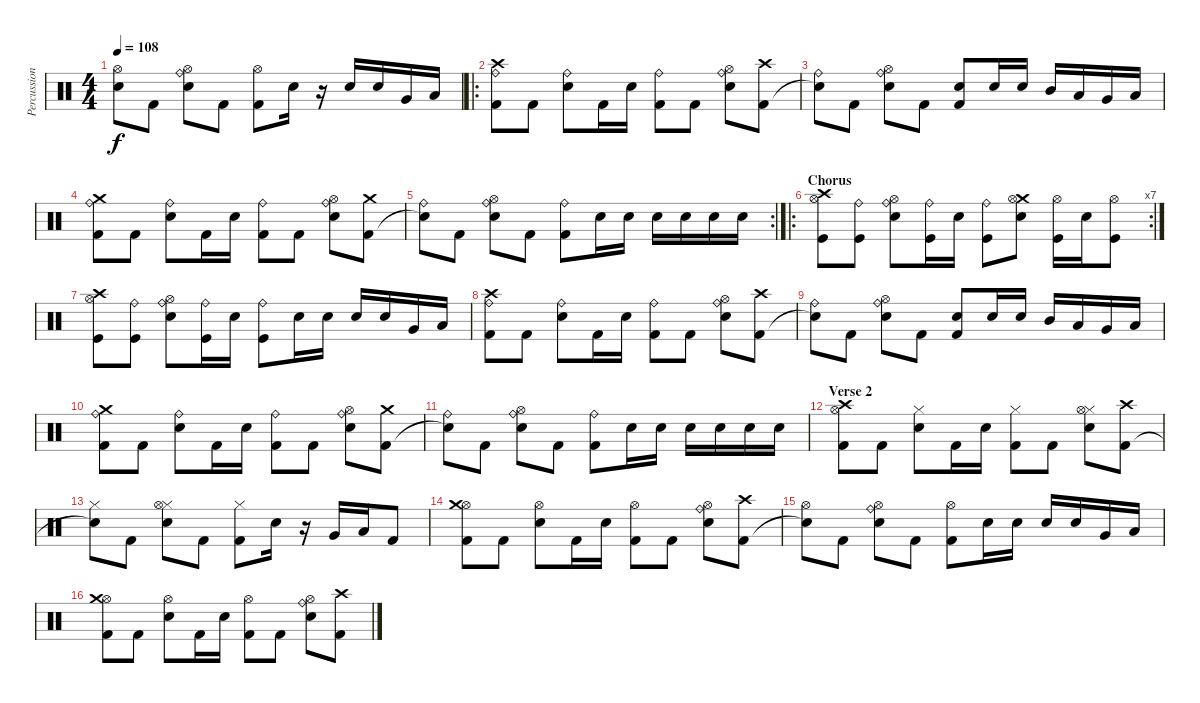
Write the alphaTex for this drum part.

\track ("Percussion" "Percussion") {instrument percussion}
\staff {score}
\articulation defaults
\ts (4 4)
\tempo 108
\clef neutral
\ks c
("Hi-Hat (open)" "Snare (hit)"{t}).8{dy f} "Kick (hit) 2".8 ("Ride (bell)" "Hi-Hat (open)" "Snare (hit) 2").8 "Kick (hit) 2".8 ("Hi-Hat (open)" "Kick (hit) 2").8 "Electric Snare (hit)".16 r.16 "Electric Snare (hit)".16 "Electric Snare (hit)".16 "Very Low Tom (hit)".16 "Low Floor Tom (hit)".16 |
\ro
("Ride (bell)" "Crash high (hit)" "Kick (hit) 2").8 "Kick (hit) 2".8 ("Ride (bell)" "Snare (hit) 2").8 "Kick (hit) 2".16 "Snare (hit) 2".16 ("Ride (bell)" "Kick (hit) 2").8 "Kick (hit) 2".8 ("Ride (bell)" "Hi-Hat (open)" "Snare (hit) 2").8 ("Crash high (hit)" "Kick (hit) 2").8 |
("Ride (bell)" "Snare (hit)"{t}).8 "Kick (hit) 2".8 ("Ride (bell)" "Hi-Hat (open)" "Snare (hit) 2").8 "Kick (hit) 2".8 ("Electric Snare (hit)" "Kick (hit) 2").8 "Electric Snare (hit)".16 "Electric Snare (hit)".16 "Mid Tom (hit)".16 "Low Tom (hit)".16 "Very Low Tom (hit)".16 "Low Floor Tom (hit)".16 |
("Ride (bell)" "Crash medium (hit)" "Kick (hit) 2").8 "Kick (hit) 2".8 ("Ride (bell)" "Snare (hit) 2").8 "Kick (hit) 2".16 "Snare (hit) 2".16 ("Ride (bell)" "Kick (hit) 2").8 "Kick (hit) 2".8 ("Ride (bell)" "Hi-Hat (open)" "Snare (hit) 2").8 ("Crash medium (hit)" "Kick (hit) 2").8 |
\rc 2
("Ride (bell)" "Snare (hit)"{t}).8 "Kick (hit) 2".8 ("Ride (bell)" "Hi-Hat (open)" "Snare (hit) 2").8 "Kick (hit) 2".8 ("Ride (bell)" "Kick (hit) 2").8 "Electric Snare (hit)".16 "Electric Snare (hit)".16 "Electric Snare (hit)".16 "Electric Snare (hit)".16 "Electric Snare (hit)".16 "Electric Snare (hit)".16 |
\ro
\rc 7
\section ("" "Chorus")
("Crash high (hit)" "Hi-Hat (open)" "Kick (hit)").8 ("Ride (bell)" "Kick (hit)").8 ("Ride (bell)" "Hi-Hat (open)" "Electric Snare (hit)").8 ("Ride (bell)" "Kick (hit)").16 "Electric Snare (hit)".16 ("Ride (bell)" "Kick (hit)").8 ("Crash medium (hit)" "Hi-Hat (open)" "Electric Snare (hit)").8 ("Hi-Hat (open)" "Kick (hit)").16 "Electric Snare (hit)".16 ("Hi-Hat (open)" "Kick (hit)").8 |
("Crash high (hit)" "Hi-Hat (open)" "Kick (hit)").8 ("Ride (bell)" "Kick (hit)").8 ("Ride (bell)" "Hi-Hat (open)" "Electric Snare (hit)").8 ("Ride (bell)" "Kick (hit)").16 "Electric Snare (hit)".16 ("Ride (bell)" "Kick (hit)").8 "Electric Snare (hit)".16 "Electric Snare (hit)".16 "Electric Snare (hit)".16 "Electric Snare (hit)".16 "Very Low Tom (hit)".16 "Low Floor Tom (hit)".16 |
("Ride (bell)" "Crash high (hit)" "Kick (hit) 2").8 "Kick (hit) 2".8 ("Ride (bell)" "Snare (hit) 2").8 "Kick (hit) 2".16 "Snare (hit) 2".16 ("Ride (bell)" "Kick (hit) 2").8 "Kick (hit) 2".8 ("Ride (bell)" "Hi-Hat (open)" "Snare (hit) 2").8 ("Crash high (hit)" "Kick (hit) 2").8 |
("Ride (bell)" "Snare (hit)"{t}).8 "Kick (hit) 2".8 ("Ride (bell)" "Hi-Hat (open)" "Snare (hit) 2").8 "Kick (hit) 2".8 ("Electric Snare (hit)" "Kick (hit) 2").8 "Electric Snare (hit)".16 "Electric Snare (hit)".16 "Mid Tom (hit)".16 "Low Tom (hit)".16 "Very Low Tom (hit)".16 "Low Floor Tom (hit)".16 |
("Ride (bell)" "Crash medium (hit)" "Kick (hit) 2").8 "Kick (hit) 2".8 ("Ride (bell)" "Snare (hit) 2").8 "Kick (hit) 2".16 "Snare (hit) 2".16 ("Ride (bell)" "Kick (hit) 2").8 "Kick (hit) 2".8 ("Ride (bell)" "Hi-Hat (open)" "Snare (hit) 2").8 ("Crash medium (hit)" "Kick (hit) 2").8 |
("Ride (bell)" "Snare (hit)"{t}).8 "Kick (hit) 2".8 ("Ride (bell)" "Hi-Hat (open)" "Snare (hit) 2").8 "Kick (hit) 2".8 ("Ride (bell)" "Kick (hit) 2").8 "Electric Snare (hit)".16 "Electric Snare (hit)".16 "Electric Snare (hit)".16 "Electric Snare (hit)".16 "Electric Snare (hit)".16 "Electric Snare (hit)".16 |
\section ("" "Verse 2")
("Hi-Hat (open)" "Crash high (hit)" "Kick (hit) 2").8 "Kick (hit) 2".8 ("Hi-Hat (closed)" "Snare (hit) 2").8 "Kick (hit) 2".16 "Snare (hit) 2".16 ("Hi-Hat (closed)" "Kick (hit) 2").8 "Kick (hit) 2".8 ("Hi-Hat (closed)" "Hi-Hat (open)" "Snare (hit) 2").8 ("Crash high (hit)" "Kick (hit) 2").8 |
("Hi-Hat (closed)" "Snare (hit)"{t}).8 "Kick (hit) 2".8 ("Hi-Hat (closed)" "Hi-Hat (open)" "Snare (hit) 2").8 "Kick (hit) 2".8 ("Hi-Hat (closed)" "Kick (hit) 2").8 "Electric Snare (hit)".16 r.16 "Very Low Tom (hit)".16 "Low Floor Tom (hit)".16 "Kick (hit) 2".8 |
("Hi-Hat (open)" "Crash medium (hit)" "Kick (hit) 2").8 "Kick (hit) 2".8 ("Hi-Hat (open)" "Snare (hit) 2").8 "Kick (hit) 2".16 "Snare (hit) 2".16 ("Hi-Hat (open)" "Kick (hit) 2").8 "Kick (hit) 2".8 ("Ride (bell)" "Hi-Hat (open)" "Snare (hit) 2").8 ("Crash high (hit)" "Kick (hit) 2").8 |
("Hi-Hat (open)" "Snare (hit)"{t}).8 "Kick (hit) 2".8 ("Ride (bell)" "Hi-Hat (open)" "Snare (hit) 2").8 "Kick (hit) 2".8 ("Hi-Hat (open)" "Kick (hit) 2").8 "Electric Snare (hit)".16 "Electric Snare (hit)".16 "Electric Snare (hit)".16 "Electric Snare (hit)".16 "Very Low Tom (hit)".16 "Low Floor Tom (hit)".16 |
("Hi-Hat (open)" "Crash medium (hit)" "Kick (hit) 2").8 "Kick (hit) 2".8 ("Hi-Hat (open)" "Snare (hit) 2").8 "Kick (hit) 2".16 "Snare (hit) 2".16 ("Hi-Hat (open)" "Kick (hit) 2").8 "Kick (hit) 2".8 ("Ride (bell)" "Hi-Hat (open)" "Snare (hit) 2").8 ("Crash high (hit)" "Kick (hit) 2").8
